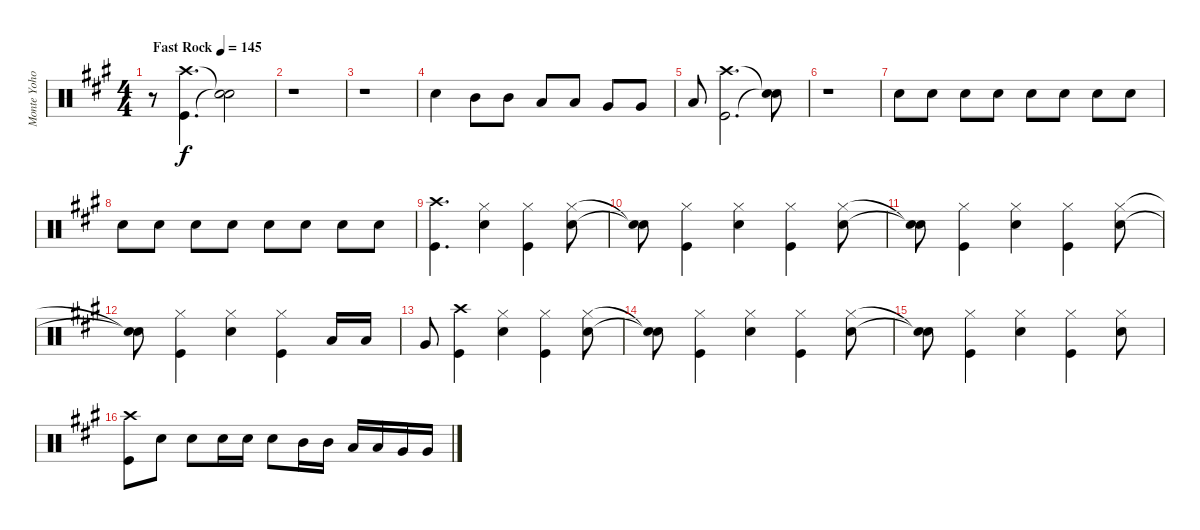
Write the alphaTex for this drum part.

\track ("Monte Yoho Drums" "Monte Yoho") {instrument percussion}
\staff {score}
\articulation defaults
\ts (4 4)
\tempo (145 "Fast Rock")
\clef neutral
\ks a
r.8{dy f} ("Crash high (hit)" "Kick (hit)").4{d} ("Snare (hit)"{t} "Snare (hit)"{t}).2 |
r.1 |
r.1 |
"Snare (hit) 2".4 "Mid Tom (hit)".8 "Mid Tom (hit)".8 "Low Tom (hit)".8 "Low Tom (hit)".8 "Very Low Tom (hit)".8 "Very Low Tom (hit)".8 |
"Low Floor Tom (hit)".8 ("Crash high (hit)" "Kick (hit)").2{d} ("Snare (hit)"{t} "Snare (hit)"{t}).8 |
r.1 |
"Snare (hit) 2".8 "Snare (hit) 2".8 "Snare (hit) 2".8 "Snare (hit) 2".8 "Snare (hit) 2".8 "Snare (hit) 2".8 "Snare (hit) 2".8 "Snare (hit) 2".8 |
"Snare (hit) 2".8 "Snare (hit) 2".8 "Snare (hit) 2".8 "Snare (hit) 2".8 "Snare (hit) 2".8 "Snare (hit) 2".8 "Snare (hit) 2".8 "Snare (hit) 2".8 |
("Crash high (hit)" "Kick (hit)").4{d} ("Hi-Hat (closed)" "Snare (hit) 2").4 ("Hi-Hat (closed)" "Kick (hit)").4 ("Hi-Hat (closed)" "Snare (hit) 2").8 |
("Snare (hit)"{t} "Snare (hit)"{t}).8 ("Hi-Hat (closed)" "Kick (hit)").4 ("Hi-Hat (closed)" "Snare (hit) 2").4 ("Hi-Hat (closed)" "Kick (hit)").4 ("Hi-Hat (closed)" "Snare (hit) 2").8 |
("Snare (hit)"{t} "Snare (hit)"{t}).8 ("Hi-Hat (closed)" "Kick (hit)").4 ("Hi-Hat (closed)" "Snare (hit) 2").4 ("Hi-Hat (closed)" "Kick (hit)").4 ("Hi-Hat (closed)" "Snare (hit) 2").8 |
("Snare (hit)"{t} "Snare (hit)"{t}).8 ("Hi-Hat (closed)" "Kick (hit)").4 ("Hi-Hat (closed)" "Snare (hit) 2").4 ("Hi-Hat (closed)" "Kick (hit)").4 "Low Tom (hit)".16 "Low Tom (hit)".16 |
"Very Low Tom (hit)".8 ("Crash high (hit)" "Kick (hit)").4 ("Hi-Hat (closed)" "Snare (hit) 2").4 ("Hi-Hat (closed)" "Kick (hit)").4 ("Hi-Hat (closed)" "Snare (hit) 2").8 |
("Snare (hit)"{t} "Snare (hit)"{t}).8 ("Hi-Hat (closed)" "Kick (hit)").4 ("Hi-Hat (closed)" "Snare (hit) 2").4 ("Hi-Hat (closed)" "Kick (hit)").4 ("Hi-Hat (closed)" "Snare (hit) 2").8 |
("Snare (hit)"{t} "Snare (hit)"{t}).8 ("Hi-Hat (closed)" "Kick (hit)").4 ("Hi-Hat (closed)" "Snare (hit) 2").4 ("Hi-Hat (closed)" "Kick (hit)").4 ("Hi-Hat (closed)" "Snare (hit) 2").8 |
("Crash high (hit)" "Kick (hit)").8 "Snare (hit) 2".8 "Snare (hit) 2".8 "Snare (hit) 2".16 "Snare (hit) 2".16 "Snare (hit) 2".8 "Mid Tom (hit)".16 "Mid Tom (hit)".16 "Low Tom (hit)".16 "Low Tom (hit)".16 "Very Low Tom (hit)".16 "Very Low Tom (hit)".16
